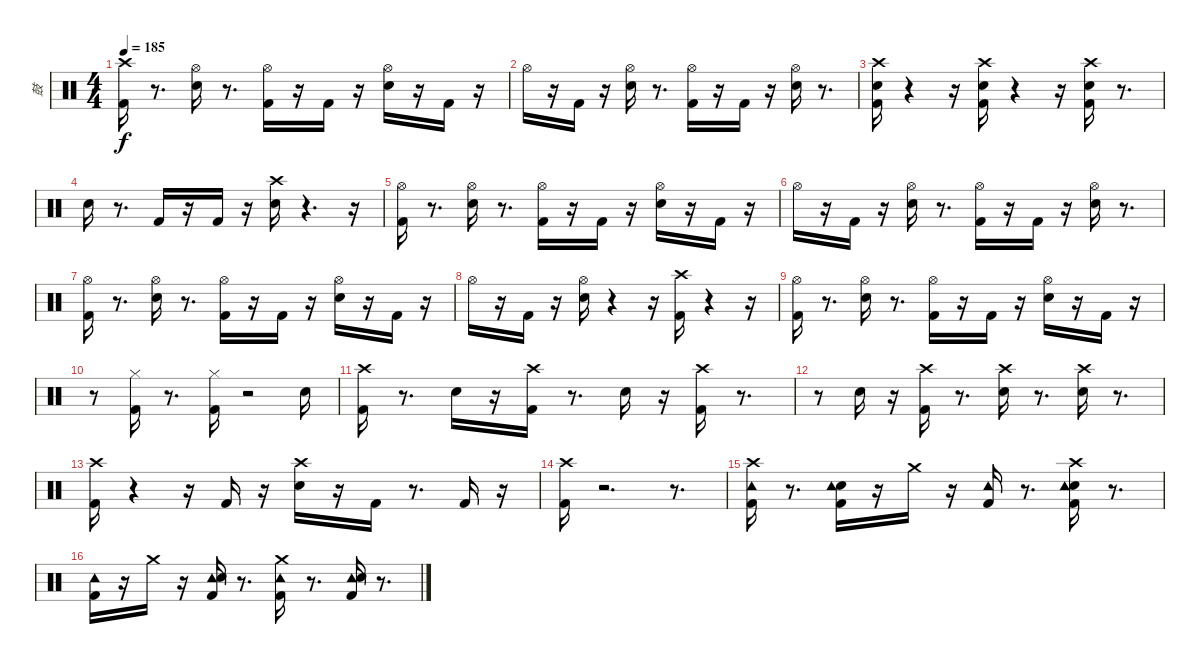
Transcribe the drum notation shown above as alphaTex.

\track ("鼓" "鼓") {instrument percussion}
\staff {score}
\articulation defaults
\ts (4 4)
\tempo 185
\clef neutral
\ks c
("Crash high (hit)" "Kick (hit) 2").16{dy f} r.8{d} ("Hi-Hat (open)" "Snare (hit) 2").16 r.8{d} ("Hi-Hat (open)" "Kick (hit) 2").16 r.16 "Kick (hit) 2".16 r.16 ("Hi-Hat (open)" "Snare (hit) 2").16 r.16 "Kick (hit) 2".16 r.16 |
"Hi-Hat (open)".16 r.16 "Kick (hit) 2".16 r.16 ("Hi-Hat (open)" "Snare (hit) 2").16 r.8{d} ("Kick (hit) 2" "Hi-Hat (open)").16 r.16 "Kick (hit) 2".16 r.16 ("Hi-Hat (open)" "Snare (hit) 2").16 r.8{d} |
("Snare (hit) 2" "Kick (hit) 2" "Crash high (hit)").16 r.4 r.16 ("Snare (hit) 2" "Kick (hit) 2" "Crash high (hit)").16 r.4 r.16 ("Crash high (hit)" "Snare (hit) 2" "Kick (hit) 2").16 r.8{d} |
"Snare (hit) 2".16 r.8{d} "Kick (hit) 2".16 r.16 "Kick (hit) 2".16 r.16 ("Snare (hit) 2" "Crash high (hit)").16 r.4{d} r.16 |
("Hi-Hat (open)" "Kick (hit) 2").16 r.8{d} ("Hi-Hat (open)" "Snare (hit) 2").16 r.8{d} ("Hi-Hat (open)" "Kick (hit) 2").16 r.16 "Kick (hit) 2".16 r.16 ("Hi-Hat (open)" "Snare (hit) 2").16 r.16 "Kick (hit) 2".16 r.16 |
"Hi-Hat (open)".16 r.16 "Kick (hit) 2".16 r.16 ("Hi-Hat (open)" "Snare (hit) 2").16 r.8{d} ("Kick (hit) 2" "Hi-Hat (open)").16 r.16 "Kick (hit) 2".16 r.16 ("Hi-Hat (open)" "Snare (hit) 2").16 r.8{d} |
("Hi-Hat (open)" "Kick (hit) 2").16 r.8{d} ("Hi-Hat (open)" "Snare (hit) 2").16 r.8{d} ("Hi-Hat (open)" "Kick (hit) 2").16 r.16 "Kick (hit) 2".16 r.16 ("Hi-Hat (open)" "Snare (hit) 2").16 r.16 "Kick (hit) 2".16 r.16 |
"Hi-Hat (open)".16 r.16 "Kick (hit) 2".16 r.16 ("Hi-Hat (open)" "Snare (hit) 2").16 r.4 r.16 ("Crash high (hit)" "Kick (hit) 2").16 r.4 r.16 |
("Hi-Hat (open)" "Kick (hit) 2").16 r.8{d} ("Hi-Hat (open)" "Snare (hit) 2").16 r.8{d} ("Hi-Hat (open)" "Kick (hit) 2").16 r.16 "Kick (hit) 2".16 r.16 ("Hi-Hat (open)" "Snare (hit) 2").16 r.16 "Kick (hit) 2".16 r.16 |
r.8 ("Kick (hit) 2" "Hi-Hat (closed)").16 r.8{d} ("Kick (hit) 2" "Hi-Hat (closed)").16 r.2 "Snare (hit) 2".16 |
("Crash high (hit)" "Kick (hit) 2").16 r.8{d} "Snare (hit) 2".16 r.16 ("Kick (hit) 2" "Crash high (hit)").16 r.8{d} "Snare (hit) 2".16 r.16 ("Kick (hit) 2" "Crash high (hit)").16 r.8{d} |
r.8 "Snare (hit) 2".16 r.16 ("Crash high (hit)" "Kick (hit) 2").16 r.8{d} ("Snare (hit) 2" "Crash high (hit)").16 r.8{d} ("Snare (hit) 2" "Crash high (hit)").16 r.8{d} |
("Crash high (hit)" "Kick (hit) 2").16 r.4 r.16 "Kick (hit) 2".16 r.16 ("Crash high (hit)" "Snare (hit) 2").16 r.16 "Kick (hit) 2".16 r.8{d} "Kick (hit) 2".16 r.16 |
("Kick (hit) 2" "Crash high (hit)").16 r.2{d} r.8{d} |
("Crash high (hit)" "Kick (hit) 2" "Tambourine (hit)").16 r.8{d} ("Snare (hit) 2" "Kick (hit) 2" "Tambourine (hit)").16 r.16 "Crash medium (hit)".16 r.16 ("Kick (hit) 2" "Tambourine (hit)").16 r.8{d} ("Crash high (hit)" "Snare (hit) 2" "Kick (hit) 2" "Tambourine (hit)").16 r.8{d} |
("Tambourine (hit)" "Kick (hit) 2").16 r.16 "Crash medium (hit)".16 r.16 ("Tambourine (hit)" "Snare (hit) 2" "Kick (hit) 2").16 r.8{d} ("Tambourine (hit)" "Kick (hit) 2" "Crash medium (hit)").16 r.8{d} ("Tambourine (hit)" "Snare (hit) 2" "Kick (hit) 2").16 r.8{d}
